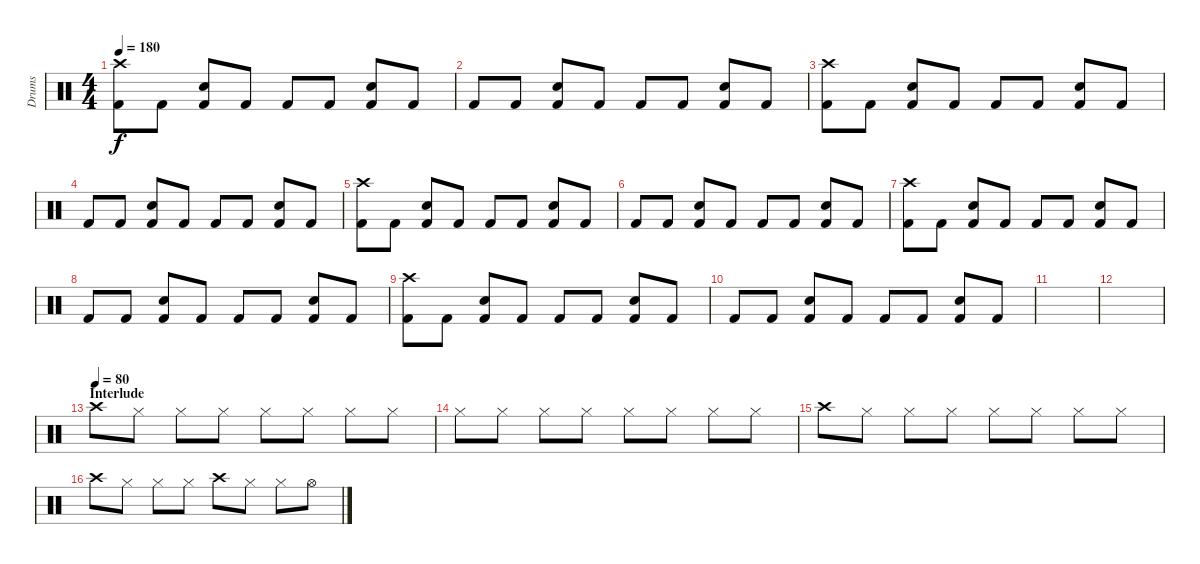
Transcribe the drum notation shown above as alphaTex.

\track ("Drums" "Drums") {instrument percussion}
\staff {score}
\articulation defaults
\ts (4 4)
\tempo 180
\clef neutral
\ks c
("Crash high (hit)" "Kick (hit) 2").8{dy f} "Kick (hit) 2".8 ("Snare (hit) 2" "Kick (hit) 2").8 "Kick (hit) 2".8 "Kick (hit) 2".8 "Kick (hit) 2".8 ("Snare (hit) 2" "Kick (hit) 2").8 "Kick (hit) 2".8 |
"Kick (hit) 2".8 "Kick (hit) 2".8 ("Snare (hit) 2" "Kick (hit) 2").8 "Kick (hit) 2".8 "Kick (hit) 2".8 "Kick (hit) 2".8 ("Snare (hit) 2" "Kick (hit) 2").8 "Kick (hit) 2".8 |
("Crash high (hit)" "Kick (hit) 2").8 "Kick (hit) 2".8 ("Snare (hit) 2" "Kick (hit) 2").8 "Kick (hit) 2".8 "Kick (hit) 2".8 "Kick (hit) 2".8 ("Snare (hit) 2" "Kick (hit) 2").8 "Kick (hit) 2".8 |
"Kick (hit) 2".8 "Kick (hit) 2".8 ("Snare (hit) 2" "Kick (hit) 2").8 "Kick (hit) 2".8 "Kick (hit) 2".8 "Kick (hit) 2".8 ("Snare (hit) 2" "Kick (hit) 2").8 "Kick (hit) 2".8 |
("Crash high (hit)" "Kick (hit) 2").8 "Kick (hit) 2".8 ("Snare (hit) 2" "Kick (hit) 2").8 "Kick (hit) 2".8 "Kick (hit) 2".8 "Kick (hit) 2".8 ("Snare (hit) 2" "Kick (hit) 2").8 "Kick (hit) 2".8 |
"Kick (hit) 2".8 "Kick (hit) 2".8 ("Snare (hit) 2" "Kick (hit) 2").8 "Kick (hit) 2".8 "Kick (hit) 2".8 "Kick (hit) 2".8 ("Snare (hit) 2" "Kick (hit) 2").8 "Kick (hit) 2".8 |
("Crash high (hit)" "Kick (hit) 2").8 "Kick (hit) 2".8 ("Snare (hit) 2" "Kick (hit) 2").8 "Kick (hit) 2".8 "Kick (hit) 2".8 "Kick (hit) 2".8 ("Snare (hit) 2" "Kick (hit) 2").8 "Kick (hit) 2".8 |
"Kick (hit) 2".8 "Kick (hit) 2".8 ("Snare (hit) 2" "Kick (hit) 2").8 "Kick (hit) 2".8 "Kick (hit) 2".8 "Kick (hit) 2".8 ("Snare (hit) 2" "Kick (hit) 2").8 "Kick (hit) 2".8 |
("Crash high (hit)" "Kick (hit) 2").8 "Kick (hit) 2".8 ("Snare (hit) 2" "Kick (hit) 2").8 "Kick (hit) 2".8 "Kick (hit) 2".8 "Kick (hit) 2".8 ("Snare (hit) 2" "Kick (hit) 2").8 "Kick (hit) 2".8 |
"Kick (hit) 2".8 "Kick (hit) 2".8 ("Snare (hit) 2" "Kick (hit) 2").8 "Kick (hit) 2".8 "Kick (hit) 2".8 "Kick (hit) 2".8 ("Snare (hit) 2" "Kick (hit) 2").8 "Kick (hit) 2".8 |
|
|
\section ("" "Interlude")
\tempo (80)
"Crash high (hit)".8 "Hi-Hat (closed)".8 "Hi-Hat (closed)".8 "Hi-Hat (closed)".8 "Hi-Hat (closed)".8 "Hi-Hat (closed)".8 "Hi-Hat (closed)".8 "Hi-Hat (closed)".8 |
"Hi-Hat (closed)".8 "Hi-Hat (closed)".8 "Hi-Hat (closed)".8 "Hi-Hat (closed)".8 "Hi-Hat (closed)".8 "Hi-Hat (closed)".8 "Hi-Hat (closed)".8 "Hi-Hat (closed)".8 |
"Crash high (hit)".8 "Hi-Hat (closed)".8 "Hi-Hat (closed)".8 "Hi-Hat (closed)".8 "Hi-Hat (closed)".8 "Hi-Hat (closed)".8 "Hi-Hat (closed)".8 "Hi-Hat (closed)".8 |
"Crash high (hit)".8 "Hi-Hat (closed)".8 "Hi-Hat (closed)".8 "Hi-Hat (closed)".8 "Crash high (hit)".8 "Hi-Hat (closed)".8 "Hi-Hat (closed)".8 "Hi-Hat (open)".8
